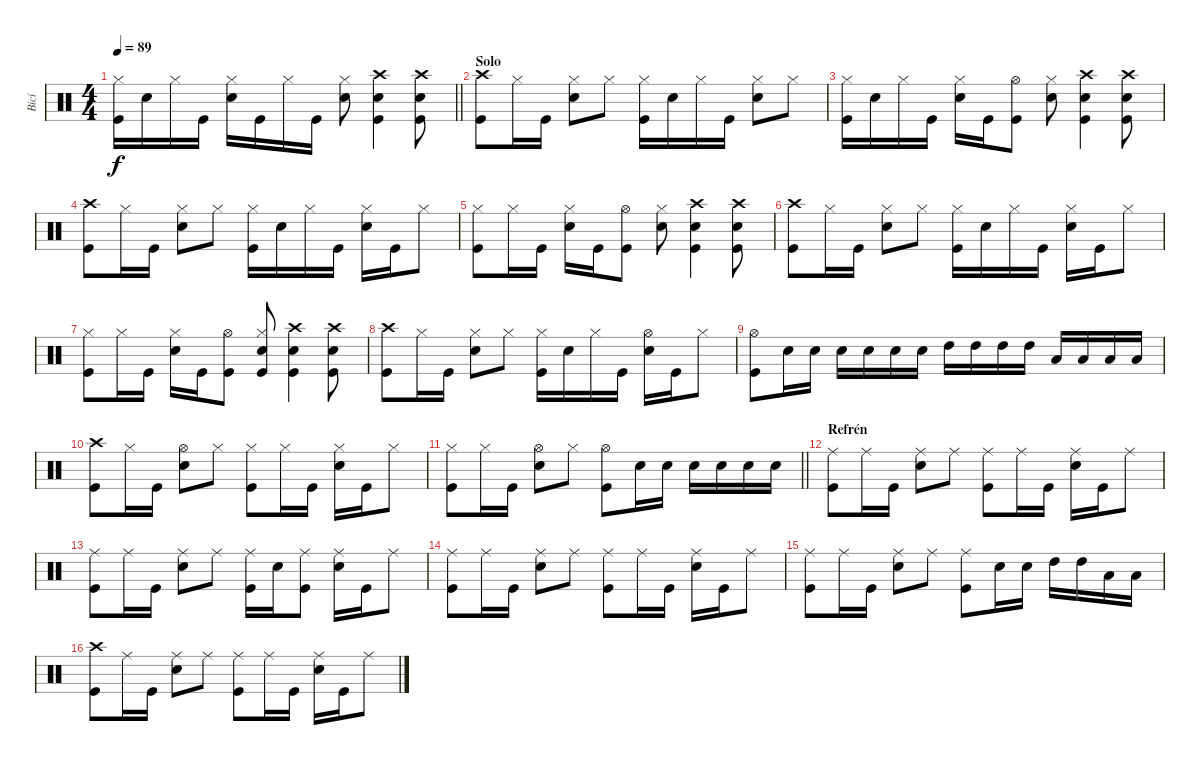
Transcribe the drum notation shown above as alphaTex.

\track ("Bicí" "Bicí") {instrument percussion}
\staff {score}
\articulation defaults
\ts (4 4)
\tempo 89
\clef neutral
\barLineRight lightlight
\ks c
("Kick (hit)" "Hi-Hat (closed)").16{dy f} "Snare (hit) 2".16 "Hi-Hat (closed)".16 "Kick (hit)".16 ("Snare (hit) 2" "Hi-Hat (closed)").16 "Kick (hit)".16 "Hi-Hat (closed)".16 "Kick (hit)".16 ("Snare (hit) 2" "Hi-Hat (closed)").8 ("Crash high (hit)" "Kick (hit)" "Snare (hit) 2").4 ("Crash high (hit)" "Kick (hit)" "Snare (hit) 2").8 |
\section ("" "Solo")
("Kick (hit)" "Crash high (hit)").8 "Hi-Hat (closed)".16{beam merge} "Kick (hit)".16 ("Hi-Hat (closed)" "Snare (hit) 2").8{beam Down} "Hi-Hat (closed)".8{beam Down} ("Kick (hit)" "Hi-Hat (closed)").16 "Snare (hit) 2".16 "Hi-Hat (closed)".16 "Kick (hit)".16 ("Hi-Hat (closed)" "Snare (hit) 2").8{beam Down} "Hi-Hat (closed)".8{beam Down} |
("Kick (hit)" "Hi-Hat (closed)").16 "Snare (hit) 2".16 "Hi-Hat (closed)".16 "Kick (hit)".16 ("Snare (hit) 2" "Hi-Hat (closed)").16 "Kick (hit)".16 ("Kick (hit)" "Hi-Hat (open)").8 ("Hi-Hat (closed)" "Snare (hit) 2").8 ("Crash high (hit)" "Kick (hit)" "Snare (hit) 2").4 ("Crash high (hit)" "Kick (hit)" "Snare (hit) 2").8 |
("Kick (hit)" "Crash high (hit)").8 "Hi-Hat (closed)".16{beam merge} "Kick (hit)".16 ("Hi-Hat (closed)" "Snare (hit) 2").8{beam Down} "Hi-Hat (closed)".8{beam Down} ("Kick (hit)" "Hi-Hat (closed)").16 "Snare (hit) 2".16 "Hi-Hat (closed)".16 "Kick (hit)".16 ("Hi-Hat (closed)" "Snare (hit) 2").16{beam Down} "Kick (hit)".16{beam Down} "Hi-Hat (closed)".8{beam Down} |
("Kick (hit)" "Hi-Hat (closed)").8 "Hi-Hat (closed)".16{beam merge} "Kick (hit)".16 ("Snare (hit) 2" "Hi-Hat (closed)").16 "Kick (hit)".16 ("Kick (hit)" "Hi-Hat (open)").8 ("Hi-Hat (closed)" "Snare (hit) 2").8 ("Crash high (hit)" "Kick (hit)" "Snare (hit) 2").4 ("Crash high (hit)" "Kick (hit)" "Snare (hit) 2").8 |
("Kick (hit)" "Crash high (hit)").8 "Hi-Hat (closed)".16{beam merge} "Kick (hit)".16 ("Hi-Hat (closed)" "Snare (hit) 2").8{beam Down} "Hi-Hat (closed)".8{beam Down} ("Kick (hit)" "Hi-Hat (closed)").16 "Snare (hit) 2".16 "Hi-Hat (closed)".16 "Kick (hit)".16 ("Hi-Hat (closed)" "Snare (hit) 2").16{beam Down} "Kick (hit)".16{beam Down} "Hi-Hat (closed)".8{beam Down} |
("Kick (hit)" "Hi-Hat (closed)").8 "Hi-Hat (closed)".16{beam merge} "Kick (hit)".16 ("Snare (hit) 2" "Hi-Hat (closed)").16 "Kick (hit)".16 ("Kick (hit)" "Hi-Hat (open)").8 ("Kick (hit)" "Hi-Hat (closed)" "Snare (hit) 2").8 ("Crash high (hit)" "Kick (hit)" "Snare (hit) 2").4 ("Crash high (hit)" "Kick (hit)" "Snare (hit) 2").8 |
("Kick (hit)" "Crash high (hit)").8 "Hi-Hat (closed)".16{beam merge} "Kick (hit)".16 ("Hi-Hat (closed)" "Snare (hit) 2").8{beam Down} "Hi-Hat (closed)".8{beam Down} ("Kick (hit)" "Hi-Hat (closed)").16 "Snare (hit) 2".16 "Hi-Hat (closed)".16 "Kick (hit)".16 ("Snare (hit) 2" "Hi-Hat (open)").16{beam Down} "Kick (hit)".16{beam Down} "Hi-Hat (closed)".8{beam Down} |
("Kick (hit)" "Hi-Hat (open)").8{beam Down} "Snare (hit) 2".16{beam Down} "Snare (hit) 2".16{beam Down} "Snare (hit) 2".16{beam Down} "Snare (hit) 2".16{beam Down} "Snare (hit) 2".16{beam Down} "Snare (hit) 2".16{beam Down} "High Tom (hit)".16 "High Tom (hit)".16 "High Tom (hit)".16 "High Tom (hit)".16 "Low Tom (hit)".16 "Low Tom (hit)".16 "Low Floor Tom (hit)".16 "Low Floor Tom (hit)".16 |
("Kick (hit)" "Crash high (hit)").8 "Hi-Hat (closed)".16{beam merge} "Kick (hit)".16 ("Snare (hit) 2" "Hi-Hat (open)").8{beam Down} "Hi-Hat (closed)".8{beam Down} ("Kick (hit)" "Hi-Hat (closed)").8 "Hi-Hat (closed)".16{beam merge} "Kick (hit)".16 ("Hi-Hat (closed)" "Snare (hit) 2").16{beam Down} "Kick (hit)".16{beam Down} "Hi-Hat (closed)".8{beam Down} |
\barLineRight lightlight
("Kick (hit)" "Hi-Hat (closed)").8 "Hi-Hat (closed)".16{beam merge} "Kick (hit)".16 ("Snare (hit) 2" "Hi-Hat (open)").8 "Hi-Hat (closed)".8 ("Kick (hit)" "Hi-Hat (open)").8{beam Down} "Snare (hit) 2".16{beam Down} "Snare (hit) 2".16{beam Down} "Snare (hit) 2".16{beam Down} "Snare (hit) 2".16{beam Down} "Snare (hit) 2".16{beam Down} "Snare (hit) 2".16{beam Down} |
\section ("" "Refrén")
("Kick (hit)" "Ride (middle)").8 "Ride (middle)".16{beam merge} "Kick (hit)".16 ("Snare (hit) 2" "Ride (middle)").8{beam Down} "Ride (middle)".8{beam Down} ("Kick (hit)" "Ride (middle)").8 "Ride (middle)".16{beam merge} "Kick (hit)".16 ("Ride (middle)" "Snare (hit) 2").16{beam Down} "Kick (hit)".16{beam Down} "Ride (middle)".8{beam Down} |
("Kick (hit)" "Ride (middle)").8 "Ride (middle)".16{beam merge} "Kick (hit)".16 ("Snare (hit) 2" "Ride (middle)").8 "Ride (middle)".8 ("Kick (hit)" "Ride (middle)").16 "Snare (hit) 2".16 ("Ride (middle)" "Kick (hit)").8 ("Ride (middle)" "Snare (hit) 2").16 "Kick (hit)".16 "Ride (middle)".8 |
("Kick (hit)" "Ride (middle)").8 "Ride (middle)".16{beam merge} "Kick (hit)".16 ("Snare (hit) 2" "Ride (middle)").8{beam Down} "Ride (middle)".8{beam Down} ("Kick (hit)" "Ride (middle)").8 "Ride (middle)".16{beam merge} "Kick (hit)".16 ("Ride (middle)" "Snare (hit) 2").16{beam Down} "Kick (hit)".16{beam Down} "Ride (middle)".8{beam Down} |
("Kick (hit)" "Ride (middle)").8 "Ride (middle)".16{beam merge} "Kick (hit)".16 ("Snare (hit) 2" "Ride (middle)").8 "Ride (middle)".8 ("Kick (hit)" "Ride (middle)").8 "Snare (hit) 2".16 "Snare (hit) 2".16 "High Tom (hit)".16 "High Tom (hit)".16 "Low Tom (hit)".16 "Low Tom (hit)".16 |
("Kick (hit)" "Crash high (hit)").8 "Ride (middle)".16{beam merge} "Kick (hit)".16 ("Snare (hit) 2" "Ride (middle)").8{beam Down} "Ride (middle)".8{beam Down} ("Kick (hit)" "Ride (middle)").8 "Ride (middle)".16{beam merge} "Kick (hit)".16 ("Ride (middle)" "Snare (hit) 2").16{beam Down} "Kick (hit)".16{beam Down} "Ride (middle)".8{beam Down}
